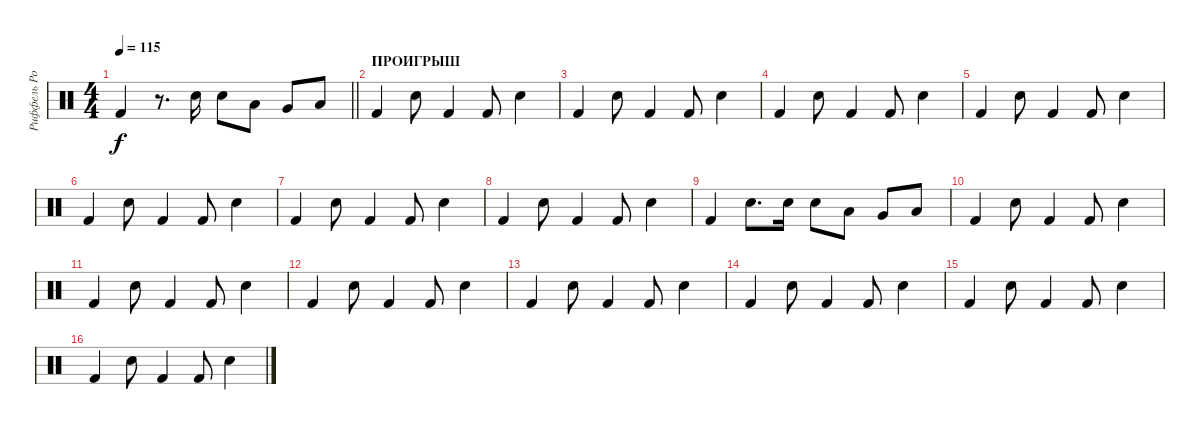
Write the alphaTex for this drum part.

\track ("Риффель Роман(Главные)" "Риффель Ро") {instrument percussion}
\staff {score}
\articulation defaults
\ts (4 4)
\tempo 115
\clef neutral
\barLineRight lightlight
\ks c "Kick (hit) 2".4{dy f}
r.8{d} "Electric Snare (hit)".16 "Electric Snare (hit)".8 "Low Tom (hit)".8 "Very Low Tom (hit)".8 "Low Floor Tom (hit)".8 |
\section ("" "ПРОИГРЫШ")
"Kick (hit) 2".4 "Electric Snare (hit)".8 "Kick (hit) 2".4 "Kick (hit) 2".8 "Electric Snare (hit)".4 |
"Kick (hit) 2".4 "Electric Snare (hit)".8 "Kick (hit) 2".4 "Kick (hit) 2".8 "Electric Snare (hit)".4 |
"Kick (hit) 2".4 "Electric Snare (hit)".8 "Kick (hit) 2".4 "Kick (hit) 2".8 "Electric Snare (hit)".4 |
"Kick (hit) 2".4 "Electric Snare (hit)".8 "Kick (hit) 2".4 "Kick (hit) 2".8 "Electric Snare (hit)".4 |
"Kick (hit) 2".4 "Electric Snare (hit)".8 "Kick (hit) 2".4 "Kick (hit) 2".8 "Electric Snare (hit)".4 |
"Kick (hit) 2".4 "Electric Snare (hit)".8 "Kick (hit) 2".4 "Kick (hit) 2".8 "Electric Snare (hit)".4 |
"Kick (hit) 2".4 "Electric Snare (hit)".8 "Kick (hit) 2".4 "Kick (hit) 2".8 "Electric Snare (hit)".4 |
"Kick (hit) 2".4 "Electric Snare (hit)".8{d} "Electric Snare (hit)".16 "Electric Snare (hit)".8 "Low Tom (hit)".8 "Very Low Tom (hit)".8 "Low Floor Tom (hit)".8 |
"Kick (hit) 2".4 "Electric Snare (hit)".8 "Kick (hit) 2".4 "Kick (hit) 2".8 "Electric Snare (hit)".4 |
"Kick (hit) 2".4 "Electric Snare (hit)".8 "Kick (hit) 2".4 "Kick (hit) 2".8 "Electric Snare (hit)".4 |
"Kick (hit) 2".4 "Electric Snare (hit)".8 "Kick (hit) 2".4 "Kick (hit) 2".8 "Electric Snare (hit)".4 |
"Kick (hit) 2".4 "Electric Snare (hit)".8 "Kick (hit) 2".4 "Kick (hit) 2".8 "Electric Snare (hit)".4 |
"Kick (hit) 2".4 "Electric Snare (hit)".8 "Kick (hit) 2".4 "Kick (hit) 2".8 "Electric Snare (hit)".4 |
"Kick (hit) 2".4 "Electric Snare (hit)".8 "Kick (hit) 2".4 "Kick (hit) 2".8 "Electric Snare (hit)".4 |
"Kick (hit) 2".4 "Electric Snare (hit)".8 "Kick (hit) 2".4 "Kick (hit) 2".8 "Electric Snare (hit)".4
